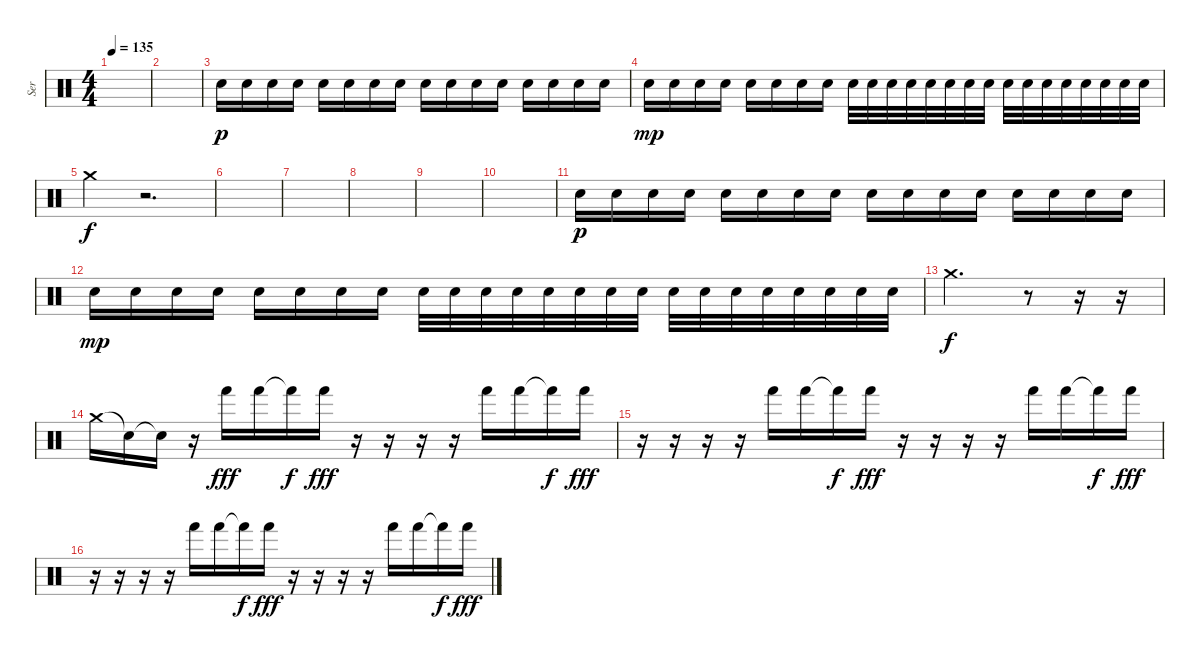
\track ("Ser" "Ser") {instrument percussion}
\staff {score}
\articulation defaults
\ts (4 4)
\tempo 135
\clef neutral
\ks c
|
|
"Electric Snare (hit)".16{dy p} "Electric Snare (hit)".16 "Electric Snare (hit)".16 "Electric Snare (hit)".16 "Electric Snare (hit)".16 "Electric Snare (hit)".16 "Electric Snare (hit)".16 "Electric Snare (hit)".16 "Electric Snare (hit)".16 "Electric Snare (hit)".16 "Electric Snare (hit)".16 "Electric Snare (hit)".16 "Electric Snare (hit)".16 "Electric Snare (hit)".16 "Electric Snare (hit)".16 "Electric Snare (hit)".16 |
"Electric Snare (hit)".16{dy mp} "Electric Snare (hit)".16 "Electric Snare (hit)".16 "Electric Snare (hit)".16 "Electric Snare (hit)".16 "Electric Snare (hit)".16 "Electric Snare (hit)".16 "Electric Snare (hit)".16 "Electric Snare (hit)".32 "Electric Snare (hit)".32 "Electric Snare (hit)".32 "Electric Snare (hit)".32 "Electric Snare (hit)".32 "Electric Snare (hit)".32 "Electric Snare (hit)".32 "Electric Snare (hit)".32 "Electric Snare (hit)".32 "Electric Snare (hit)".32 "Electric Snare (hit)".32 "Electric Snare (hit)".32 "Electric Snare (hit)".32 "Electric Snare (hit)".32 "Electric Snare (hit)".32 "Electric Snare (hit)".32 |
"Crash medium (hit)".4{dy f} r.2{d} |
|
|
|
|
|
"Electric Snare (hit)".16{dy p} "Electric Snare (hit)".16 "Electric Snare (hit)".16 "Electric Snare (hit)".16 "Electric Snare (hit)".16 "Electric Snare (hit)".16 "Electric Snare (hit)".16 "Electric Snare (hit)".16 "Electric Snare (hit)".16 "Electric Snare (hit)".16 "Electric Snare (hit)".16 "Electric Snare (hit)".16 "Electric Snare (hit)".16 "Electric Snare (hit)".16 "Electric Snare (hit)".16 "Electric Snare (hit)".16 |
"Electric Snare (hit)".16{dy mp} "Electric Snare (hit)".16 "Electric Snare (hit)".16 "Electric Snare (hit)".16 "Electric Snare (hit)".16 "Electric Snare (hit)".16 "Electric Snare (hit)".16 "Electric Snare (hit)".16 "Electric Snare (hit)".32 "Electric Snare (hit)".32 "Electric Snare (hit)".32 "Electric Snare (hit)".32 "Electric Snare (hit)".32 "Electric Snare (hit)".32 "Electric Snare (hit)".32 "Electric Snare (hit)".32 "Electric Snare (hit)".32 "Electric Snare (hit)".32 "Electric Snare (hit)".32 "Electric Snare (hit)".32 "Electric Snare (hit)".32 "Electric Snare (hit)".32 "Electric Snare (hit)".32 "Electric Snare (hit)".32 |
"Crash medium (hit)".2{d dy f} r.8 r.16 r.16 |
"Crash medium (hit)".16 "Snare (hit)"{t}.16 "Snare (hit)"{t}.16 r.16 "Hand (hit)".16{dy fff} "Hand (hit)".16 "Hand (hit)"{t}.16{dy f} "Hand (hit)".16{dy fff} r.16 r.16 r.16 r.16 "Hand (hit)".16 "Hand (hit)".16 "Hand (hit)"{t}.16{dy f} "Hand (hit)".16{dy fff} |
r.16 r.16 r.16 r.16 "Hand (hit)".16 "Hand (hit)".16 "Hand (hit)"{t}.16{dy f} "Hand (hit)".16{dy fff} r.16 r.16 r.16 r.16 "Hand (hit)".16 "Hand (hit)".16 "Hand (hit)"{t}.16{dy f} "Hand (hit)".16{dy fff} |
r.16 r.16 r.16 r.16 "Hand (hit)".16 "Hand (hit)".16 "Hand (hit)"{t}.16{dy f} "Hand (hit)".16{dy fff} r.16 r.16 r.16 r.16 "Hand (hit)".16 "Hand (hit)".16 "Hand (hit)"{t}.16{dy f} "Hand (hit)".16{dy fff}
